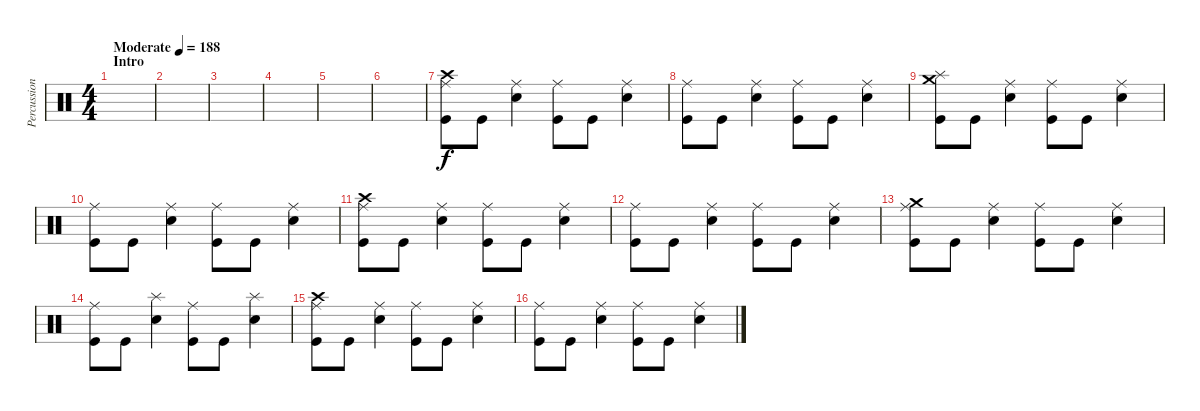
\track ("Percussion" "Percussion") {instrument percussion}
\staff {score}
\articulation defaults
\ts (4 4)
\section ("" "Intro")
\tempo (188 "Moderate")
\clef neutral
\ks c
|
|
|
|
|
|
("Crash high (hit)" "Ride (middle)" "Kick (hit)").8 "Kick (hit)".8 ("Ride (middle)" "Electric Snare (hit)").4 ("Ride (middle)" "Kick (hit)").8 "Kick (hit)".8 ("Ride (middle)" "Electric Snare (hit)").4 |
("Ride (middle)" "Kick (hit)").8 "Kick (hit)".8 ("Ride (middle)" "Electric Snare (hit)").4 ("Ride (middle)" "Kick (hit)").8 "Kick (hit)".8 ("Ride (middle)" "Electric Snare (hit)").4 |
("Crash medium (hit)" "Splash (hit)" "Kick (hit)").8 "Kick (hit)".8 ("Ride (middle)" "Electric Snare (hit)").4 ("Ride (middle)" "Kick (hit)").8 "Kick (hit)".8 ("Ride (middle)" "Electric Snare (hit)").4 |
("Ride (middle)" "Kick (hit)").8 "Kick (hit)".8 ("Ride (middle)" "Electric Snare (hit)").4 ("Ride (middle)" "Kick (hit)").8 "Kick (hit)".8 ("Ride (middle)" "Electric Snare (hit)").4 |
("Crash high (hit)" "Ride (middle)" "Kick (hit)").8 "Kick (hit)".8 ("Ride (middle)" "Electric Snare (hit)").4 ("Ride (middle)" "Kick (hit)").8 "Kick (hit)".8 ("Ride (middle)" "Electric Snare (hit)").4 |
("Ride (middle)" "Kick (hit)").8 "Kick (hit)".8 ("Ride (middle)" "Electric Snare (hit)").4 ("Ride (middle)" "Kick (hit)").8 "Kick (hit)".8 ("Ride (middle)" "Electric Snare (hit)").4 |
("Crash medium (hit)" "Ride (middle)" "Kick (hit)").8 "Kick (hit)".8 ("Ride (middle)" "Electric Snare (hit)").4 ("Ride (middle)" "Kick (hit)").8 "Kick (hit)".8 ("Ride (middle)" "Electric Snare (hit)").4 |
("Ride (middle)" "Kick (hit)").8 "Kick (hit)".8 ("Splash (hit)" "Electric Snare (hit)").4 ("Ride (middle)" "Kick (hit)").8 "Kick (hit)".8 ("Splash (hit)" "Electric Snare (hit)").4 |
("Crash high (hit)" "Ride (middle)" "Kick (hit)").8 "Kick (hit)".8 ("Ride (middle)" "Electric Snare (hit)").4 ("Ride (middle)" "Kick (hit)").8 "Kick (hit)".8 ("Ride (middle)" "Electric Snare (hit)").4 |
("Ride (middle)" "Kick (hit)").8 "Kick (hit)".8 ("Ride (middle)" "Electric Snare (hit)").4 ("Ride (middle)" "Kick (hit)").8 "Kick (hit)".8 ("Ride (middle)" "Electric Snare (hit)").4
